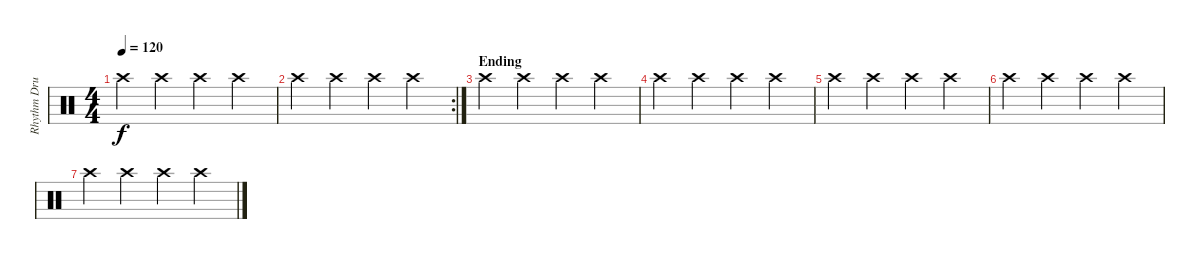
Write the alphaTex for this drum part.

\track ("Rhythm Drums" "Rhythm Dru") {instrument percussion}
\staff {score}
\articulation defaults
\ts (4 4)
\tempo 120
\clef neutral
\ks c "Crash high (hit)".4{dy f} "Crash high (hit)".4 "Crash high (hit)".4 "Crash high (hit)".4
|
\rc 2 "Crash high (hit)".4 "Crash high (hit)".4 "Crash high (hit)".4 "Crash high (hit)".4
|
\section ("" "Ending")
"Crash high (hit)".4 "Crash high (hit)".4 "Crash high (hit)".4 "Crash high (hit)".4 |
"Crash high (hit)".4 "Crash high (hit)".4 "Crash high (hit)".4 "Crash high (hit)".4 |
"Crash high (hit)".4 "Crash high (hit)".4 "Crash high (hit)".4 "Crash high (hit)".4 |
"Crash high (hit)".4 "Crash high (hit)".4 "Crash high (hit)".4 "Crash high (hit)".4 |
"Crash high (hit)".4 "Crash high (hit)".4 "Crash high (hit)".4 "Crash high (hit)".4
